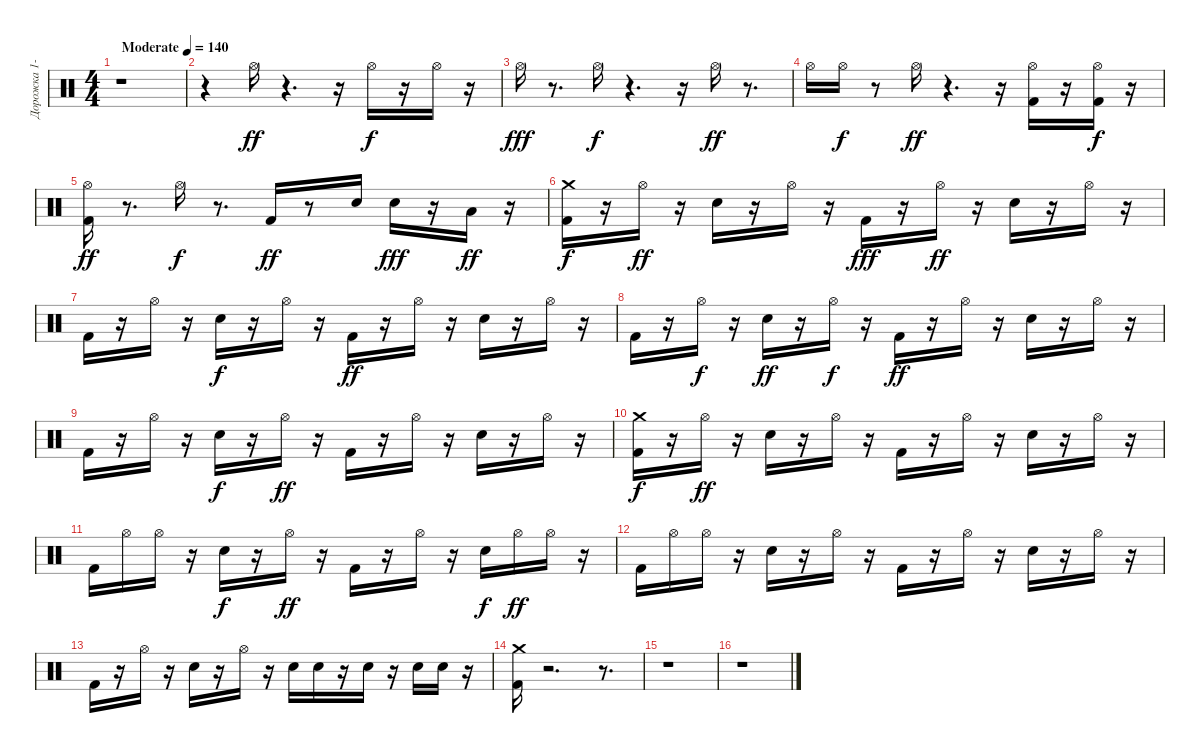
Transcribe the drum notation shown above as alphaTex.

\track ("Дорожка 1-2" "Дорожка 1-") {instrument percussion}
\staff {score}
\articulation defaults
\ts (4 4)
\tempo (140 "Moderate")
\clef neutral
\ks c
r.1{dy ff} |
r.4 "Hi-Hat (open)".16 r.4{d} r.16 "Hi-Hat (open)".16{dy f} r.16 "Hi-Hat (open)".16 r.16 |
"Hi-Hat (open)".16{dy fff} r.8{d} "Hi-Hat (open)".16{dy f} r.4{d} r.16 "Hi-Hat (open)".16{dy ff} r.8{d} |
"Hi-Hat (open)".16 "Hi-Hat (open)".16{dy f} r.8 "Hi-Hat (open)".16{dy ff} r.4{d} r.16 ("Hi-Hat (open)" "Kick (hit) 2").16 r.16 ("Hi-Hat (open)" "Kick (hit) 2").16{dy f} r.16 |
("Hi-Hat (open)" "Kick (hit) 2").16{dy ff} r.8{d} "Hi-Hat (open)".16{dy f} r.8{d} "Kick (hit) 2".16{dy ff} r.8 "Electric Snare (hit)".16 "Electric Snare (hit)".16{dy fff} r.16 "Low Floor Tom (hit)".16{dy ff} r.16 |
("Kick (hit) 2" "Crash medium (hit)").16{dy f} r.16 "Hi-Hat (open)".16{dy ff} r.16 "Electric Snare (hit)".16 r.16 "Hi-Hat (open)".16 r.16 "Kick (hit) 2".16{dy fff} r.16 "Hi-Hat (open)".16{dy ff} r.16 "Electric Snare (hit)".16 r.16 "Hi-Hat (open)".16 r.16 |
"Kick (hit) 2".16 r.16 "Hi-Hat (open)".16 r.16 "Electric Snare (hit)".16{dy f} r.16 "Hi-Hat (open)".16 r.16 "Kick (hit) 2".16{dy ff} r.16 "Hi-Hat (open)".16 r.16 "Electric Snare (hit)".16 r.16 "Hi-Hat (open)".16 r.16 |
"Kick (hit) 2".16 r.16 "Hi-Hat (open)".16{dy f} r.16 "Electric Snare (hit)".16{dy ff} r.16 "Hi-Hat (open)".16{dy f} r.16 "Kick (hit) 2".16{dy ff} r.16 "Hi-Hat (open)".16 r.16 "Electric Snare (hit)".16 r.16 "Hi-Hat (open)".16 r.16 |
"Kick (hit) 2".16 r.16 "Hi-Hat (open)".16 r.16 "Electric Snare (hit)".16{dy f} r.16 "Hi-Hat (open)".16{dy ff} r.16 "Kick (hit) 2".16 r.16 "Hi-Hat (open)".16 r.16 "Electric Snare (hit)".16 r.16 "Hi-Hat (open)".16 r.16 |
("Crash medium (hit)" "Kick (hit) 2").16{dy f} r.16 "Hi-Hat (open)".16{dy ff} r.16 "Electric Snare (hit)".16 r.16 "Hi-Hat (open)".16 r.16 "Kick (hit) 2".16 r.16 "Hi-Hat (open)".16 r.16 "Electric Snare (hit)".16 r.16 "Hi-Hat (open)".16 r.16 |
"Kick (hit) 2".16 "Hi-Hat (open)".16 "Hi-Hat (open)".16 r.16 "Electric Snare (hit)".16{dy f} r.16 "Hi-Hat (open)".16{dy ff} r.16 "Kick (hit) 2".16 r.16 "Hi-Hat (open)".16 r.16 "Electric Snare (hit)".16{dy f} "Hi-Hat (open)".16{dy ff} "Hi-Hat (open)".16 r.16 |
"Kick (hit) 2".16 "Hi-Hat (open)".16 "Hi-Hat (open)".16 r.16 "Electric Snare (hit)".16 r.16 "Hi-Hat (open)".16 r.16 "Kick (hit) 2".16 r.16 "Hi-Hat (open)".16 r.16 "Electric Snare (hit)".16 r.16 "Hi-Hat (open)".16 r.16 |
"Kick (hit) 2".16 r.16 "Hi-Hat (open)".16 r.16 "Electric Snare (hit)".16 r.16 "Hi-Hat (open)".16 r.16 "Electric Snare (hit)".16 "Electric Snare (hit)".16 r.16 "Electric Snare (hit)".16 r.16 "Electric Snare (hit)".16 "Electric Snare (hit)".16 r.16 |
("Crash medium (hit)" "Kick (hit) 2").16 r.2{d} r.8{d} |
r.1 |
r.1
